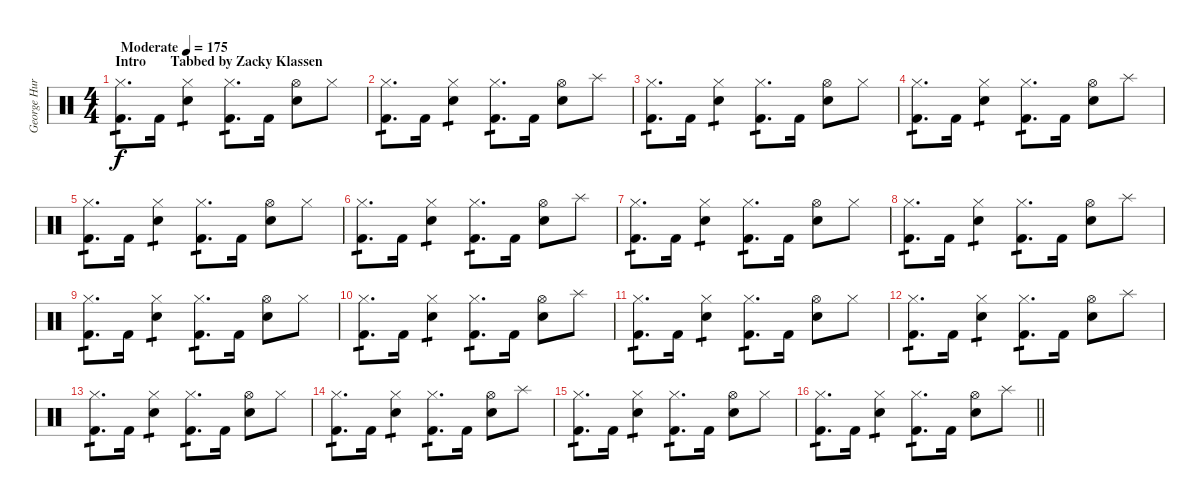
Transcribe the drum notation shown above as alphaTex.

\track ("George Hurley [Drums]" "George Hur") {instrument percussion}
\staff {score}
\articulation defaults
\ts (4 4)
\section ("" "Intro       Tabbed by Zacky Klassen")
\tempo (175 "Moderate")
\clef neutral
\ks c
("Hi-Hat (closed)" "Kick (hit) 2").8{d tp 1 dy f} "Kick (hit) 2".16 ("Hi-Hat (closed)" "Electric Snare (hit)").4{tp 1} ("Hi-Hat (closed)" "Kick (hit) 2").8{d tp 1} "Kick (hit) 2".16 ("Hi-Hat (open)" "Electric Snare (hit)").8 "Hi-Hat (closed)".8 |
("Hi-Hat (closed)" "Kick (hit) 2").8{d tp 1} "Kick (hit) 2".16 ("Hi-Hat (closed)" "Electric Snare (hit)").4{tp 1} ("Hi-Hat (closed)" "Kick (hit) 2").8{d tp 1} "Kick (hit) 2".16 ("Hi-Hat (open)" "Electric Snare (hit)").8 "Splash (hit)".8 |
("Hi-Hat (closed)" "Kick (hit) 2").8{d tp 1} "Kick (hit) 2".16 ("Hi-Hat (closed)" "Electric Snare (hit)").4{tp 1} ("Hi-Hat (closed)" "Kick (hit) 2").8{d tp 1} "Kick (hit) 2".16 ("Hi-Hat (open)" "Electric Snare (hit)").8 "Hi-Hat (closed)".8 |
("Hi-Hat (closed)" "Kick (hit) 2").8{d tp 1} "Kick (hit) 2".16 ("Hi-Hat (closed)" "Electric Snare (hit)").4{tp 1} ("Hi-Hat (closed)" "Kick (hit) 2").8{d tp 1} "Kick (hit) 2".16 ("Hi-Hat (open)" "Electric Snare (hit)").8 "Splash (hit)".8 |
("Hi-Hat (closed)" "Kick (hit) 2").8{d tp 1} "Kick (hit) 2".16 ("Hi-Hat (closed)" "Electric Snare (hit)").4{tp 1} ("Hi-Hat (closed)" "Kick (hit) 2").8{d tp 1} "Kick (hit) 2".16 ("Hi-Hat (open)" "Electric Snare (hit)").8 "Hi-Hat (closed)".8 |
("Hi-Hat (closed)" "Kick (hit) 2").8{d tp 1} "Kick (hit) 2".16 ("Hi-Hat (closed)" "Electric Snare (hit)").4{tp 1} ("Hi-Hat (closed)" "Kick (hit) 2").8{d tp 1} "Kick (hit) 2".16 ("Hi-Hat (open)" "Electric Snare (hit)").8 "Splash (hit)".8 |
("Hi-Hat (closed)" "Kick (hit) 2").8{d tp 1} "Kick (hit) 2".16 ("Hi-Hat (closed)" "Electric Snare (hit)").4{tp 1} ("Hi-Hat (closed)" "Kick (hit) 2").8{d tp 1} "Kick (hit) 2".16 ("Hi-Hat (open)" "Electric Snare (hit)").8 "Hi-Hat (closed)".8 |
("Hi-Hat (closed)" "Kick (hit) 2").8{d tp 1} "Kick (hit) 2".16 ("Hi-Hat (closed)" "Electric Snare (hit)").4{tp 1} ("Hi-Hat (closed)" "Kick (hit) 2").8{d tp 1} "Kick (hit) 2".16 ("Hi-Hat (open)" "Electric Snare (hit)").8 "Splash (hit)".8 |
("Hi-Hat (closed)" "Kick (hit) 2").8{d tp 1} "Kick (hit) 2".16 ("Hi-Hat (closed)" "Electric Snare (hit)").4{tp 1} ("Hi-Hat (closed)" "Kick (hit) 2").8{d tp 1} "Kick (hit) 2".16 ("Hi-Hat (open)" "Electric Snare (hit)").8 "Hi-Hat (closed)".8 |
("Hi-Hat (closed)" "Kick (hit) 2").8{d tp 1} "Kick (hit) 2".16 ("Hi-Hat (closed)" "Electric Snare (hit)").4{tp 1} ("Hi-Hat (closed)" "Kick (hit) 2").8{d tp 1} "Kick (hit) 2".16 ("Hi-Hat (open)" "Electric Snare (hit)").8 "Splash (hit)".8 |
("Hi-Hat (closed)" "Kick (hit) 2").8{d tp 1} "Kick (hit) 2".16 ("Hi-Hat (closed)" "Electric Snare (hit)").4{tp 1} ("Hi-Hat (closed)" "Kick (hit) 2").8{d tp 1} "Kick (hit) 2".16 ("Hi-Hat (open)" "Electric Snare (hit)").8 "Hi-Hat (closed)".8 |
("Hi-Hat (closed)" "Kick (hit) 2").8{d tp 1} "Kick (hit) 2".16 ("Hi-Hat (closed)" "Electric Snare (hit)").4{tp 1} ("Hi-Hat (closed)" "Kick (hit) 2").8{d tp 1} "Kick (hit) 2".16 ("Hi-Hat (open)" "Electric Snare (hit)").8 "Splash (hit)".8 |
("Hi-Hat (closed)" "Kick (hit) 2").8{d tp 1} "Kick (hit) 2".16 ("Hi-Hat (closed)" "Electric Snare (hit)").4{tp 1} ("Hi-Hat (closed)" "Kick (hit) 2").8{d tp 1} "Kick (hit) 2".16 ("Hi-Hat (open)" "Electric Snare (hit)").8 "Hi-Hat (closed)".8 |
("Hi-Hat (closed)" "Kick (hit) 2").8{d tp 1} "Kick (hit) 2".16 ("Hi-Hat (closed)" "Electric Snare (hit)").4{tp 1} ("Hi-Hat (closed)" "Kick (hit) 2").8{d tp 1} "Kick (hit) 2".16 ("Hi-Hat (open)" "Electric Snare (hit)").8 "Splash (hit)".8 |
("Hi-Hat (closed)" "Kick (hit) 2").8{d tp 1} "Kick (hit) 2".16 ("Hi-Hat (closed)" "Electric Snare (hit)").4{tp 1} ("Hi-Hat (closed)" "Kick (hit) 2").8{d tp 1} "Kick (hit) 2".16 ("Hi-Hat (open)" "Electric Snare (hit)").8 "Hi-Hat (closed)".8 |
\barLineRight lightlight
("Hi-Hat (closed)" "Kick (hit) 2").8{d tp 1} "Kick (hit) 2".16 ("Hi-Hat (closed)" "Electric Snare (hit)").4{tp 1} ("Hi-Hat (closed)" "Kick (hit) 2").8{d tp 1} "Kick (hit) 2".16 ("Hi-Hat (open)" "Electric Snare (hit)").8 "Splash (hit)".8
